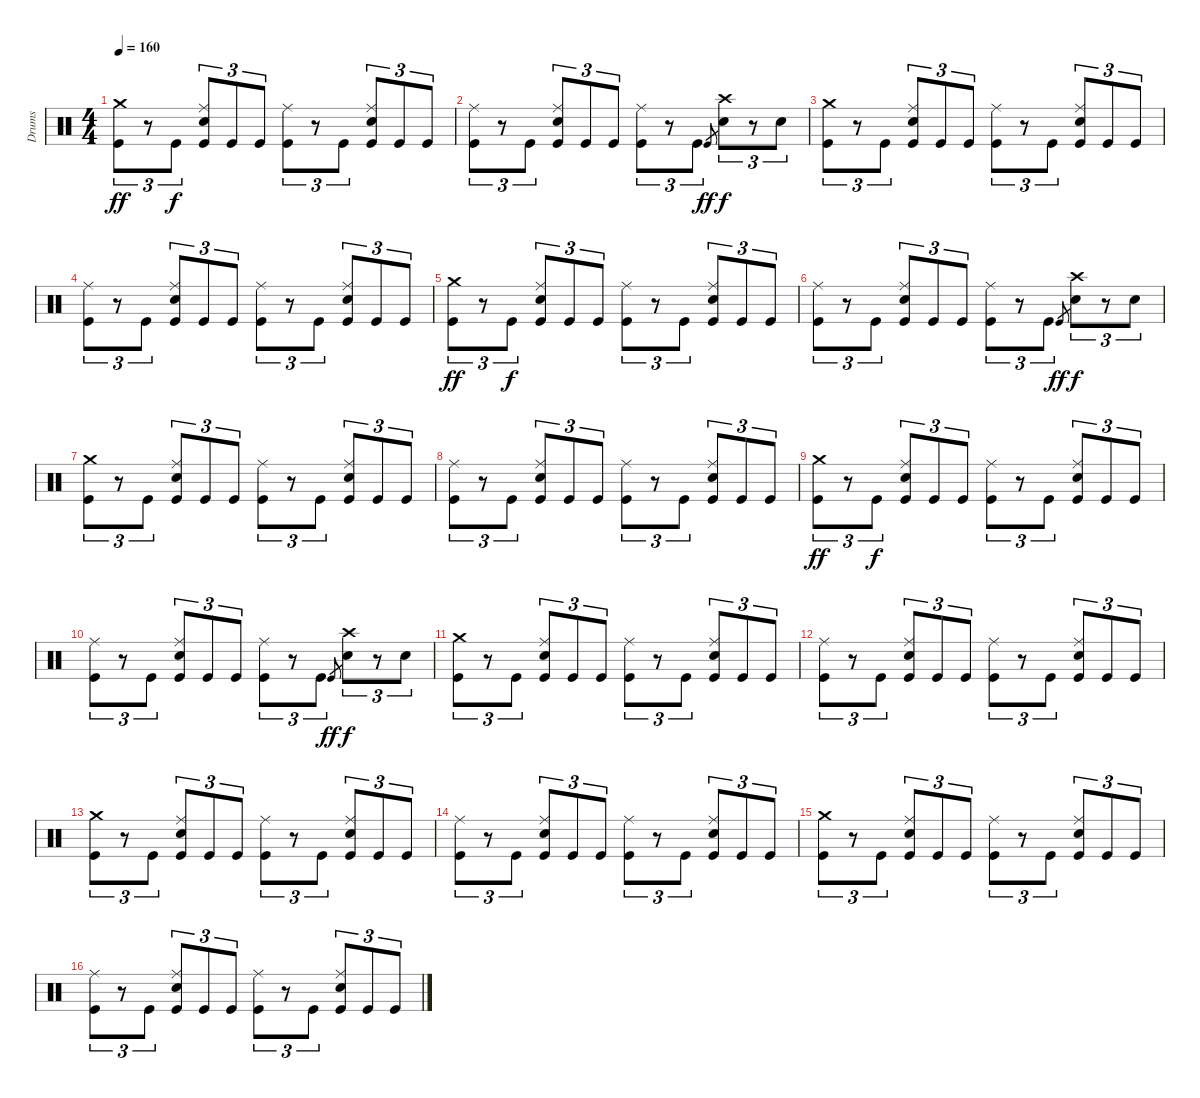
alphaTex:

\track ("Drums" "Drums") {instrument percussion}
\staff {score}
\articulation defaults
\ts (4 4)
\tempo 160
\clef neutral
\ks c
("Crash medium (hit)" "Kick (hit)").8{tu (3 2) dy ff} r.8{tu (3 2)} "Kick (hit)".8{tu (3 2) dy f} ("Ride (middle)" "Snare (hit) 2" "Kick (hit)").8{tu (3 2)} "Kick (hit)".8{tu (3 2)} "Kick (hit)".8{tu (3 2)} ("Ride (middle)" "Kick (hit)").8{tu (3 2)} r.8{tu (3 2)} "Kick (hit)".8{tu (3 2)} ("Ride (middle)" "Snare (hit) 2" "Kick (hit)").8{tu (3 2)} "Kick (hit)".8{tu (3 2)} "Kick (hit)".8{tu (3 2)} |
("Ride (middle)" "Kick (hit)").8{tu (3 2)} r.8{tu (3 2)} "Kick (hit)".8{tu (3 2)} ("Ride (middle)" "Snare (hit) 2" "Kick (hit)").8{tu (3 2)} "Kick (hit)".8{tu (3 2)} "Kick (hit)".8{tu (3 2)} ("Ride (middle)" "Kick (hit)").8{tu (3 2)} r.8{tu (3 2)} "Kick (hit)".8{tu (3 2)} "Kick (hit)".8{gr dy ff} ("Crash high (hit)" "Snare (hit) 2").8{tu (3 2) dy f} r.8{tu (3 2)} "Snare (hit) 2".8{tu (3 2)} |
("Crash medium (hit)" "Kick (hit)").8{tu (3 2)} r.8{tu (3 2)} "Kick (hit)".8{tu (3 2)} ("Ride (middle)" "Snare (hit) 2" "Kick (hit)").8{tu (3 2)} "Kick (hit)".8{tu (3 2)} "Kick (hit)".8{tu (3 2)} ("Ride (middle)" "Kick (hit)").8{tu (3 2)} r.8{tu (3 2)} "Kick (hit)".8{tu (3 2)} ("Ride (middle)" "Snare (hit) 2" "Kick (hit)").8{tu (3 2)} "Kick (hit)".8{tu (3 2)} "Kick (hit)".8{tu (3 2)} |
("Ride (middle)" "Kick (hit)").8{tu (3 2)} r.8{tu (3 2)} "Kick (hit)".8{tu (3 2)} ("Ride (middle)" "Snare (hit) 2" "Kick (hit)").8{tu (3 2)} "Kick (hit)".8{tu (3 2)} "Kick (hit)".8{tu (3 2)} ("Ride (middle)" "Kick (hit)").8{tu (3 2)} r.8{tu (3 2)} "Kick (hit)".8{tu (3 2)} ("Ride (middle)" "Snare (hit) 2" "Kick (hit)").8{tu (3 2)} "Kick (hit)".8{tu (3 2)} "Kick (hit)".8{tu (3 2)} |
("Crash medium (hit)" "Kick (hit)").8{tu (3 2) dy ff} r.8{tu (3 2)} "Kick (hit)".8{tu (3 2) dy f} ("Ride (middle)" "Snare (hit) 2" "Kick (hit)").8{tu (3 2)} "Kick (hit)".8{tu (3 2)} "Kick (hit)".8{tu (3 2)} ("Ride (middle)" "Kick (hit)").8{tu (3 2)} r.8{tu (3 2)} "Kick (hit)".8{tu (3 2)} ("Ride (middle)" "Snare (hit) 2" "Kick (hit)").8{tu (3 2)} "Kick (hit)".8{tu (3 2)} "Kick (hit)".8{tu (3 2)} |
("Ride (middle)" "Kick (hit)").8{tu (3 2)} r.8{tu (3 2)} "Kick (hit)".8{tu (3 2)} ("Ride (middle)" "Snare (hit) 2" "Kick (hit)").8{tu (3 2)} "Kick (hit)".8{tu (3 2)} "Kick (hit)".8{tu (3 2)} ("Ride (middle)" "Kick (hit)").8{tu (3 2)} r.8{tu (3 2)} "Kick (hit)".8{tu (3 2)} "Kick (hit)".8{gr dy ff} ("Crash high (hit)" "Snare (hit) 2").8{tu (3 2) dy f} r.8{tu (3 2)} "Snare (hit) 2".8{tu (3 2)} |
("Crash medium (hit)" "Kick (hit)").8{tu (3 2)} r.8{tu (3 2)} "Kick (hit)".8{tu (3 2)} ("Ride (middle)" "Snare (hit) 2" "Kick (hit)").8{tu (3 2)} "Kick (hit)".8{tu (3 2)} "Kick (hit)".8{tu (3 2)} ("Ride (middle)" "Kick (hit)").8{tu (3 2)} r.8{tu (3 2)} "Kick (hit)".8{tu (3 2)} ("Ride (middle)" "Snare (hit) 2" "Kick (hit)").8{tu (3 2)} "Kick (hit)".8{tu (3 2)} "Kick (hit)".8{tu (3 2)} |
("Ride (middle)" "Kick (hit)").8{tu (3 2)} r.8{tu (3 2)} "Kick (hit)".8{tu (3 2)} ("Ride (middle)" "Snare (hit) 2" "Kick (hit)").8{tu (3 2)} "Kick (hit)".8{tu (3 2)} "Kick (hit)".8{tu (3 2)} ("Ride (middle)" "Kick (hit)").8{tu (3 2)} r.8{tu (3 2)} "Kick (hit)".8{tu (3 2)} ("Ride (middle)" "Snare (hit) 2" "Kick (hit)").8{tu (3 2)} "Kick (hit)".8{tu (3 2)} "Kick (hit)".8{tu (3 2)} |
("Crash medium (hit)" "Kick (hit)").8{tu (3 2) dy ff} r.8{tu (3 2)} "Kick (hit)".8{tu (3 2) dy f} ("Ride (middle)" "Snare (hit) 2" "Kick (hit)").8{tu (3 2)} "Kick (hit)".8{tu (3 2)} "Kick (hit)".8{tu (3 2)} ("Ride (middle)" "Kick (hit)").8{tu (3 2)} r.8{tu (3 2)} "Kick (hit)".8{tu (3 2)} ("Ride (middle)" "Snare (hit) 2" "Kick (hit)").8{tu (3 2)} "Kick (hit)".8{tu (3 2)} "Kick (hit)".8{tu (3 2)} |
("Ride (middle)" "Kick (hit)").8{tu (3 2)} r.8{tu (3 2)} "Kick (hit)".8{tu (3 2)} ("Ride (middle)" "Snare (hit) 2" "Kick (hit)").8{tu (3 2)} "Kick (hit)".8{tu (3 2)} "Kick (hit)".8{tu (3 2)} ("Ride (middle)" "Kick (hit)").8{tu (3 2)} r.8{tu (3 2)} "Kick (hit)".8{tu (3 2)} "Kick (hit)".8{gr dy ff} ("Crash high (hit)" "Snare (hit) 2").8{tu (3 2) dy f} r.8{tu (3 2)} "Snare (hit) 2".8{tu (3 2)} |
("Crash medium (hit)" "Kick (hit)").8{tu (3 2)} r.8{tu (3 2)} "Kick (hit)".8{tu (3 2)} ("Ride (middle)" "Snare (hit) 2" "Kick (hit)").8{tu (3 2)} "Kick (hit)".8{tu (3 2)} "Kick (hit)".8{tu (3 2)} ("Ride (middle)" "Kick (hit)").8{tu (3 2)} r.8{tu (3 2)} "Kick (hit)".8{tu (3 2)} ("Ride (middle)" "Snare (hit) 2" "Kick (hit)").8{tu (3 2)} "Kick (hit)".8{tu (3 2)} "Kick (hit)".8{tu (3 2)} |
("Ride (middle)" "Kick (hit)").8{tu (3 2)} r.8{tu (3 2)} "Kick (hit)".8{tu (3 2)} ("Ride (middle)" "Snare (hit) 2" "Kick (hit)").8{tu (3 2)} "Kick (hit)".8{tu (3 2)} "Kick (hit)".8{tu (3 2)} ("Ride (middle)" "Kick (hit)").8{tu (3 2)} r.8{tu (3 2)} "Kick (hit)".8{tu (3 2)} ("Ride (middle)" "Snare (hit) 2" "Kick (hit)").8{tu (3 2)} "Kick (hit)".8{tu (3 2)} "Kick (hit)".8{tu (3 2)} |
("Crash medium (hit)" "Kick (hit)").8{tu (3 2)} r.8{tu (3 2)} "Kick (hit)".8{tu (3 2)} ("Ride (middle)" "Snare (hit) 2" "Kick (hit)").8{tu (3 2)} "Kick (hit)".8{tu (3 2)} "Kick (hit)".8{tu (3 2)} ("Ride (middle)" "Kick (hit)").8{tu (3 2)} r.8{tu (3 2)} "Kick (hit)".8{tu (3 2)} ("Ride (middle)" "Snare (hit) 2" "Kick (hit)").8{tu (3 2)} "Kick (hit)".8{tu (3 2)} "Kick (hit)".8{tu (3 2)} |
("Ride (middle)" "Kick (hit)").8{tu (3 2)} r.8{tu (3 2)} "Kick (hit)".8{tu (3 2)} ("Ride (middle)" "Snare (hit) 2" "Kick (hit)").8{tu (3 2)} "Kick (hit)".8{tu (3 2)} "Kick (hit)".8{tu (3 2)} ("Ride (middle)" "Kick (hit)").8{tu (3 2)} r.8{tu (3 2)} "Kick (hit)".8{tu (3 2)} ("Ride (middle)" "Snare (hit) 2" "Kick (hit)").8{tu (3 2)} "Kick (hit)".8{tu (3 2)} "Kick (hit)".8{tu (3 2)} |
("Crash medium (hit)" "Kick (hit)").8{tu (3 2)} r.8{tu (3 2)} "Kick (hit)".8{tu (3 2)} ("Ride (middle)" "Snare (hit) 2" "Kick (hit)").8{tu (3 2)} "Kick (hit)".8{tu (3 2)} "Kick (hit)".8{tu (3 2)} ("Ride (middle)" "Kick (hit)").8{tu (3 2)} r.8{tu (3 2)} "Kick (hit)".8{tu (3 2)} ("Ride (middle)" "Snare (hit) 2" "Kick (hit)").8{tu (3 2)} "Kick (hit)".8{tu (3 2)} "Kick (hit)".8{tu (3 2)} |
("Ride (middle)" "Kick (hit)").8{tu (3 2)} r.8{tu (3 2)} "Kick (hit)".8{tu (3 2)} ("Ride (middle)" "Snare (hit) 2" "Kick (hit)").8{tu (3 2)} "Kick (hit)".8{tu (3 2)} "Kick (hit)".8{tu (3 2)} ("Ride (middle)" "Kick (hit)").8{tu (3 2)} r.8{tu (3 2)} "Kick (hit)".8{tu (3 2)} ("Ride (middle)" "Snare (hit) 2" "Kick (hit)").8{tu (3 2)} "Kick (hit)".8{tu (3 2)} "Kick (hit)".8{tu (3 2)}
